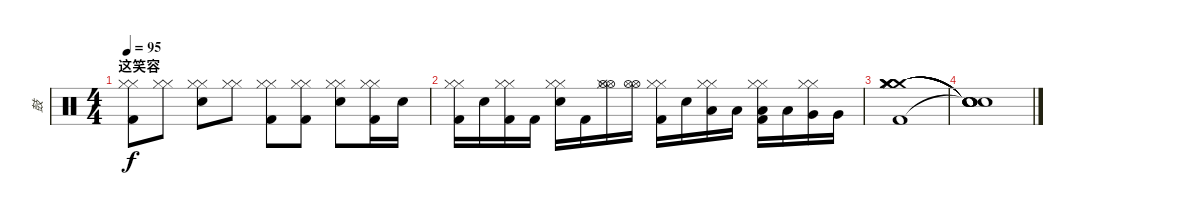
\track ("鼓" "鼓") {instrument percussion}
\staff {score}
\articulation defaults
\ts (4 4)
\section ("" "这笑容")
\tempo 95
\clef neutral
\ks c
("Hi-Hat (closed)" "Hi-Hat (closed)" "Kick (hit) 2").8{dy f} ("Hi-Hat (closed)" "Hi-Hat (closed)").8 ("Hi-Hat (closed)" "Hi-Hat (closed)" "Metronome (bell)").8 ("Hi-Hat (closed)" "Hi-Hat (closed)").8 ("Hi-Hat (closed)" "Hi-Hat (closed)" "Kick (hit) 2").8 ("Hi-Hat (closed)" "Hi-Hat (closed)" "Kick (hit) 2").8 ("Hi-Hat (closed)" "Hi-Hat (closed)" "Metronome (bell)").8 ("Hi-Hat (closed)" "Hi-Hat (closed)" "Kick (hit) 2").16 "Metronome (bell)".16 |
("Hi-Hat (closed)" "Hi-Hat (closed)" "Kick (hit) 2").16 "Metronome (bell)".16 ("Hi-Hat (closed)" "Hi-Hat (closed)" "Kick (hit) 2").16 "Kick (hit) 2".16 ("Hi-Hat (closed)" "Hi-Hat (closed)" "Metronome (bell)").16 "Kick (hit) 2".16 ("Hi-Hat (open)" "Hi-Hat (open)" "Hi-Hat (closed)").16 ("Hi-Hat (open)" "Hi-Hat (open)").16 ("Hi-Hat (closed)" "Hi-Hat (closed)" "Kick (hit) 2").16{volume 12} "Metronome (bell)".16{volume 13} ("Hi-Hat (closed)" "Hi-Hat (closed)" "Low Tom (hit)").16{volume 14} "Low Tom (hit)".16{volume 14} ("Hi-Hat (closed)" "Hi-Hat (closed)" "Low Floor Tom (hit)" "Kick (hit) 2").16{volume 15 balance 0} "Low Tom (hit)".16{volume 15 balance 16} ("Hi-Hat (closed)" "Hi-Hat (closed)" "Very Low Tom (hit)").16{volume 16 balance 0} "Very Low Tom (hit)".16{volume 16 balance 16} |
("Crash medium (hit)" "Hi-Hat (closed)" "Hi-Hat (closed)" "Crash medium (hit)" "Crash medium (hit)" "Kick (hit) 2").1 |
("Snare (hit)"{t} "Snare (hit)"{t} "Snare (hit)"{t} "Snare (hit)"{t} "Snare (hit)"{t} "Snare (hit)"{t}).1
